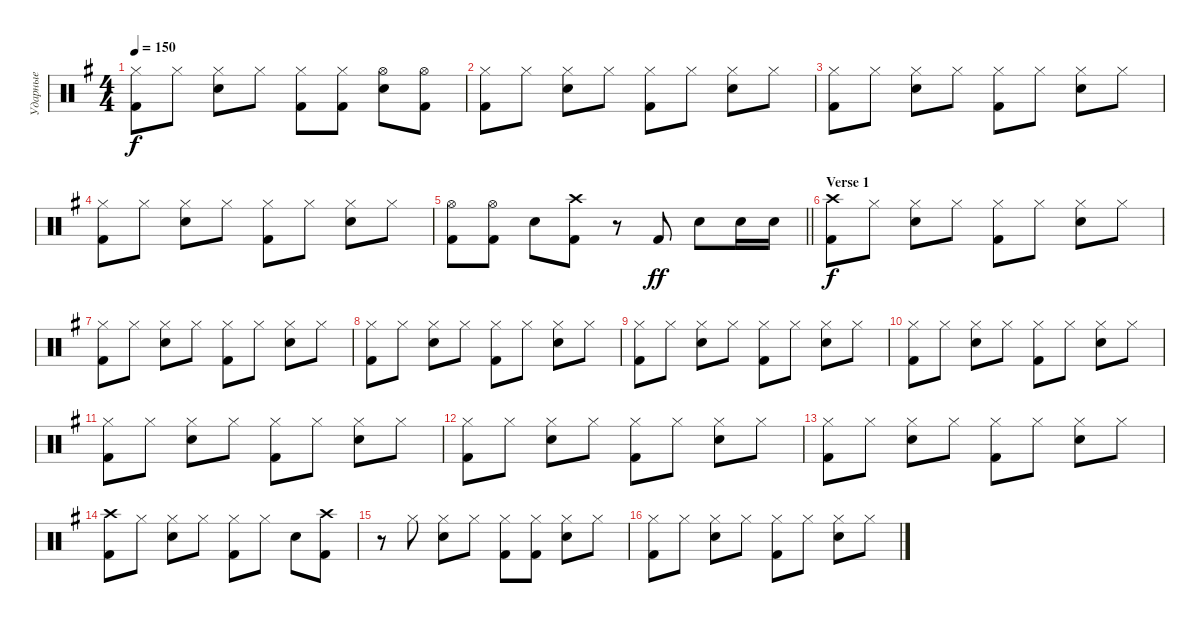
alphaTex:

\track ("Ударные" "Ударные") {instrument percussion}
\staff {score}
\articulation defaults
\ts (4 4)
\tempo 150
\clef neutral
\ks eminor
("Hi-Hat (closed)" "Kick (hit) 2").8{dy f} "Hi-Hat (closed)".8 ("Hi-Hat (closed)" "Snare (hit) 2").8 "Hi-Hat (closed)".8 ("Hi-Hat (closed)" "Kick (hit) 2").8 ("Kick (hit) 2" "Hi-Hat (closed)").8 ("Hi-Hat (open)" "Snare (hit) 2").8 ("Hi-Hat (open)" "Kick (hit) 2").8 |
("Hi-Hat (closed)" "Kick (hit) 2").8 "Hi-Hat (closed)".8 ("Hi-Hat (closed)" "Snare (hit) 2").8 "Hi-Hat (closed)".8 ("Hi-Hat (closed)" "Kick (hit) 2").8 "Hi-Hat (closed)".8 ("Hi-Hat (closed)" "Snare (hit) 2").8 "Hi-Hat (closed)".8 |
("Hi-Hat (closed)" "Kick (hit) 2").8 "Hi-Hat (closed)".8 ("Hi-Hat (closed)" "Snare (hit) 2").8 "Hi-Hat (closed)".8 ("Hi-Hat (closed)" "Kick (hit) 2").8 "Hi-Hat (closed)".8 ("Hi-Hat (closed)" "Snare (hit) 2").8 "Hi-Hat (closed)".8 |
("Hi-Hat (closed)" "Kick (hit) 2").8 "Hi-Hat (closed)".8 ("Hi-Hat (closed)" "Snare (hit) 2").8 "Hi-Hat (closed)".8 ("Hi-Hat (closed)" "Kick (hit) 2").8 "Hi-Hat (closed)".8 ("Hi-Hat (closed)" "Snare (hit) 2").8 "Hi-Hat (closed)".8 |
\barLineRight lightlight
("Hi-Hat (open)" "Kick (hit) 2").8 ("Kick (hit) 2" "Hi-Hat (open)").8 "Snare (hit) 2".8 ("Kick (hit) 2" "Crash high (hit)").8 r.8 "Kick (hit) 2".8{dy ff} "Snare (hit) 2".8 "Snare (hit) 2".16 "Snare (hit) 2".16 |
\section ("" "Verse 1")
("Crash high (hit)" "Kick (hit) 2").8{dy f} "Hi-Hat (closed)".8 ("Hi-Hat (closed)" "Snare (hit) 2").8 "Hi-Hat (closed)".8 ("Hi-Hat (closed)" "Kick (hit) 2").8 "Hi-Hat (closed)".8 ("Hi-Hat (closed)" "Snare (hit) 2").8 "Hi-Hat (closed)".8 |
("Hi-Hat (closed)" "Kick (hit) 2").8 "Hi-Hat (closed)".8 ("Hi-Hat (closed)" "Snare (hit) 2").8 "Hi-Hat (closed)".8 ("Hi-Hat (closed)" "Kick (hit) 2").8 "Hi-Hat (closed)".8 ("Hi-Hat (closed)" "Snare (hit) 2").8 "Hi-Hat (closed)".8 |
("Hi-Hat (closed)" "Kick (hit) 2").8 "Hi-Hat (closed)".8 ("Hi-Hat (closed)" "Snare (hit) 2").8 "Hi-Hat (closed)".8 ("Hi-Hat (closed)" "Kick (hit) 2").8 "Hi-Hat (closed)".8 ("Hi-Hat (closed)" "Snare (hit) 2").8 "Hi-Hat (closed)".8 |
("Hi-Hat (closed)" "Kick (hit) 2").8 "Hi-Hat (closed)".8 ("Hi-Hat (closed)" "Snare (hit) 2").8 "Hi-Hat (closed)".8 ("Hi-Hat (closed)" "Kick (hit) 2").8 "Hi-Hat (closed)".8 ("Hi-Hat (closed)" "Snare (hit) 2").8 "Hi-Hat (closed)".8 |
("Hi-Hat (closed)" "Kick (hit) 2").8 "Hi-Hat (closed)".8 ("Hi-Hat (closed)" "Snare (hit) 2").8 "Hi-Hat (closed)".8 ("Hi-Hat (closed)" "Kick (hit) 2").8 "Hi-Hat (closed)".8 ("Hi-Hat (closed)" "Snare (hit) 2").8 "Hi-Hat (closed)".8 |
("Hi-Hat (closed)" "Kick (hit) 2").8 "Hi-Hat (closed)".8 ("Hi-Hat (closed)" "Snare (hit) 2").8 "Hi-Hat (closed)".8 ("Hi-Hat (closed)" "Kick (hit) 2").8 "Hi-Hat (closed)".8 ("Hi-Hat (closed)" "Snare (hit) 2").8 "Hi-Hat (closed)".8 |
("Hi-Hat (closed)" "Kick (hit) 2").8 "Hi-Hat (closed)".8 ("Hi-Hat (closed)" "Snare (hit) 2").8 "Hi-Hat (closed)".8 ("Hi-Hat (closed)" "Kick (hit) 2").8 "Hi-Hat (closed)".8 ("Hi-Hat (closed)" "Snare (hit) 2").8 "Hi-Hat (closed)".8 |
("Hi-Hat (closed)" "Kick (hit) 2").8 "Hi-Hat (closed)".8 ("Hi-Hat (closed)" "Snare (hit) 2").8 "Hi-Hat (closed)".8 ("Hi-Hat (closed)" "Kick (hit) 2").8 "Hi-Hat (closed)".8 ("Hi-Hat (closed)" "Snare (hit) 2").8 "Hi-Hat (closed)".8 |
("Kick (hit) 2" "Crash high (hit)").8 "Hi-Hat (closed)".8 ("Snare (hit) 2" "Hi-Hat (closed)").8 "Hi-Hat (closed)".8 ("Kick (hit) 2" "Hi-Hat (closed)").8 "Hi-Hat (closed)".8 "Snare (hit) 2".8 ("Kick (hit) 2" "Crash high (hit)").8 |
r.8 "Hi-Hat (closed)".8 ("Snare (hit) 2" "Hi-Hat (closed)").8 "Hi-Hat (closed)".8 ("Kick (hit) 2" "Hi-Hat (closed)").8 ("Hi-Hat (closed)" "Kick (hit) 2").8 ("Snare (hit) 2" "Hi-Hat (closed)").8 "Hi-Hat (closed)".8 |
("Hi-Hat (closed)" "Kick (hit) 2").8 "Hi-Hat (closed)".8 ("Hi-Hat (closed)" "Snare (hit) 2").8 "Hi-Hat (closed)".8 ("Hi-Hat (closed)" "Kick (hit) 2").8 "Hi-Hat (closed)".8 ("Hi-Hat (closed)" "Snare (hit) 2").8 "Hi-Hat (closed)".8
